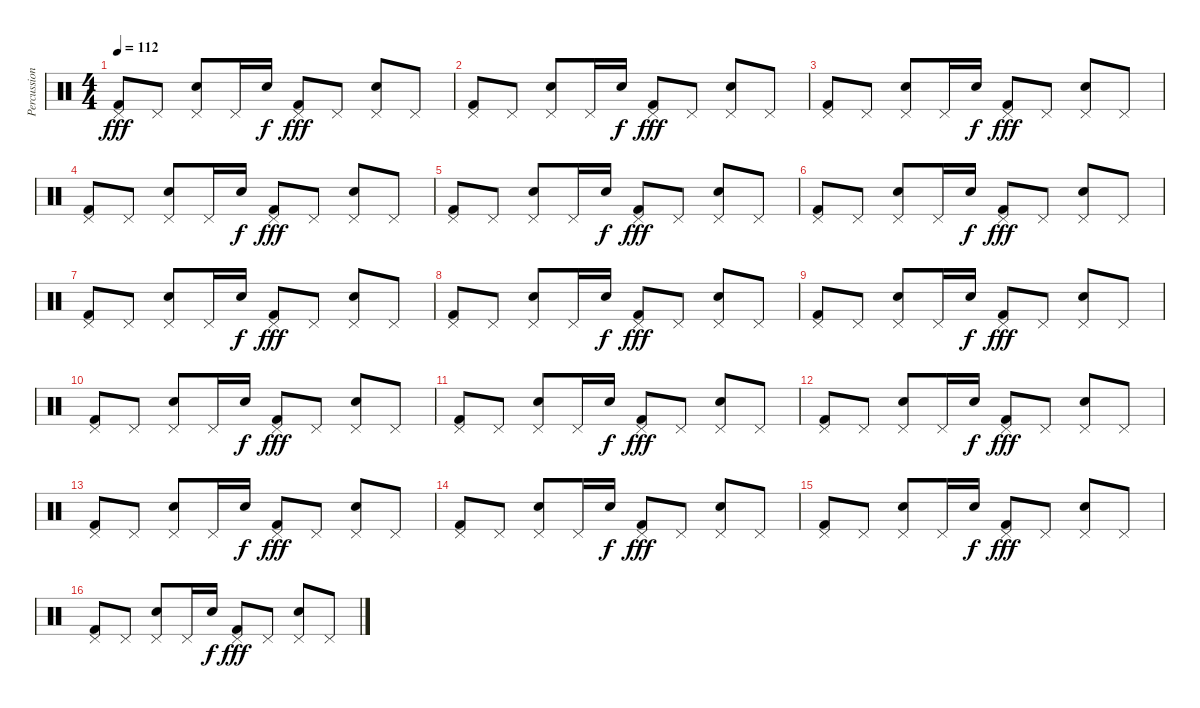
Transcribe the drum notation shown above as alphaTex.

\track ("Percussions" "Percussion") {instrument percussion}
\staff {score}
\articulation defaults
\ts (4 4)
\tempo 112
\clef neutral
\ks c
("Pedal Hi-Hat (hit)" "Kick (hit) 2").8{dy fff} "Pedal Hi-Hat (hit)".8 ("Pedal Hi-Hat (hit)" "Electric Snare (hit)").8 "Pedal Hi-Hat (hit)".16 "Electric Snare (hit)".16{dy f} ("Pedal Hi-Hat (hit)" "Kick (hit) 2").8{dy fff} "Pedal Hi-Hat (hit)".8 ("Pedal Hi-Hat (hit)" "Electric Snare (hit)").8 "Pedal Hi-Hat (hit)".8 |
("Pedal Hi-Hat (hit)" "Kick (hit) 2").8 "Pedal Hi-Hat (hit)".8 ("Pedal Hi-Hat (hit)" "Electric Snare (hit)").8 "Pedal Hi-Hat (hit)".16 "Electric Snare (hit)".16{dy f} ("Pedal Hi-Hat (hit)" "Kick (hit) 2").8{dy fff} "Pedal Hi-Hat (hit)".8 ("Pedal Hi-Hat (hit)" "Electric Snare (hit)").8 "Pedal Hi-Hat (hit)".8 |
("Pedal Hi-Hat (hit)" "Kick (hit) 2").8 "Pedal Hi-Hat (hit)".8 ("Pedal Hi-Hat (hit)" "Electric Snare (hit)").8 "Pedal Hi-Hat (hit)".16 "Electric Snare (hit)".16{dy f} ("Pedal Hi-Hat (hit)" "Kick (hit) 2").8{dy fff} "Pedal Hi-Hat (hit)".8 ("Pedal Hi-Hat (hit)" "Electric Snare (hit)").8 "Pedal Hi-Hat (hit)".8 |
("Pedal Hi-Hat (hit)" "Kick (hit) 2").8 "Pedal Hi-Hat (hit)".8 ("Pedal Hi-Hat (hit)" "Electric Snare (hit)").8 "Pedal Hi-Hat (hit)".16 "Electric Snare (hit)".16{dy f} ("Pedal Hi-Hat (hit)" "Kick (hit) 2").8{dy fff} "Pedal Hi-Hat (hit)".8 ("Pedal Hi-Hat (hit)" "Electric Snare (hit)").8 "Pedal Hi-Hat (hit)".8 |
("Pedal Hi-Hat (hit)" "Kick (hit) 2").8 "Pedal Hi-Hat (hit)".8 ("Pedal Hi-Hat (hit)" "Electric Snare (hit)").8 "Pedal Hi-Hat (hit)".16 "Electric Snare (hit)".16{dy f} ("Pedal Hi-Hat (hit)" "Kick (hit) 2").8{dy fff} "Pedal Hi-Hat (hit)".8 ("Pedal Hi-Hat (hit)" "Electric Snare (hit)").8 "Pedal Hi-Hat (hit)".8 |
("Pedal Hi-Hat (hit)" "Kick (hit) 2").8 "Pedal Hi-Hat (hit)".8 ("Pedal Hi-Hat (hit)" "Electric Snare (hit)").8 "Pedal Hi-Hat (hit)".16 "Electric Snare (hit)".16{dy f} ("Pedal Hi-Hat (hit)" "Kick (hit) 2").8{dy fff} "Pedal Hi-Hat (hit)".8 ("Pedal Hi-Hat (hit)" "Electric Snare (hit)").8 "Pedal Hi-Hat (hit)".8 |
("Pedal Hi-Hat (hit)" "Kick (hit) 2").8 "Pedal Hi-Hat (hit)".8 ("Pedal Hi-Hat (hit)" "Electric Snare (hit)").8 "Pedal Hi-Hat (hit)".16 "Electric Snare (hit)".16{dy f} ("Pedal Hi-Hat (hit)" "Kick (hit) 2").8{dy fff} "Pedal Hi-Hat (hit)".8 ("Pedal Hi-Hat (hit)" "Electric Snare (hit)").8 "Pedal Hi-Hat (hit)".8 |
("Pedal Hi-Hat (hit)" "Kick (hit) 2").8 "Pedal Hi-Hat (hit)".8 ("Pedal Hi-Hat (hit)" "Electric Snare (hit)").8 "Pedal Hi-Hat (hit)".16 "Electric Snare (hit)".16{dy f} ("Pedal Hi-Hat (hit)" "Kick (hit) 2").8{dy fff} "Pedal Hi-Hat (hit)".8 ("Pedal Hi-Hat (hit)" "Electric Snare (hit)").8 "Pedal Hi-Hat (hit)".8 |
("Pedal Hi-Hat (hit)" "Kick (hit) 2").8 "Pedal Hi-Hat (hit)".8 ("Pedal Hi-Hat (hit)" "Electric Snare (hit)").8 "Pedal Hi-Hat (hit)".16 "Electric Snare (hit)".16{dy f} ("Pedal Hi-Hat (hit)" "Kick (hit) 2").8{dy fff} "Pedal Hi-Hat (hit)".8 ("Pedal Hi-Hat (hit)" "Electric Snare (hit)").8 "Pedal Hi-Hat (hit)".8 |
("Pedal Hi-Hat (hit)" "Kick (hit) 2").8 "Pedal Hi-Hat (hit)".8 ("Pedal Hi-Hat (hit)" "Electric Snare (hit)").8 "Pedal Hi-Hat (hit)".16 "Electric Snare (hit)".16{dy f} ("Pedal Hi-Hat (hit)" "Kick (hit) 2").8{dy fff} "Pedal Hi-Hat (hit)".8 ("Pedal Hi-Hat (hit)" "Electric Snare (hit)").8 "Pedal Hi-Hat (hit)".8 |
("Pedal Hi-Hat (hit)" "Kick (hit) 2").8 "Pedal Hi-Hat (hit)".8 ("Pedal Hi-Hat (hit)" "Electric Snare (hit)").8 "Pedal Hi-Hat (hit)".16 "Electric Snare (hit)".16{dy f} ("Pedal Hi-Hat (hit)" "Kick (hit) 2").8{dy fff} "Pedal Hi-Hat (hit)".8 ("Pedal Hi-Hat (hit)" "Electric Snare (hit)").8 "Pedal Hi-Hat (hit)".8 |
("Pedal Hi-Hat (hit)" "Kick (hit) 2").8 "Pedal Hi-Hat (hit)".8 ("Pedal Hi-Hat (hit)" "Electric Snare (hit)").8 "Pedal Hi-Hat (hit)".16 "Electric Snare (hit)".16{dy f} ("Pedal Hi-Hat (hit)" "Kick (hit) 2").8{dy fff} "Pedal Hi-Hat (hit)".8 ("Pedal Hi-Hat (hit)" "Electric Snare (hit)").8 "Pedal Hi-Hat (hit)".8 |
("Pedal Hi-Hat (hit)" "Kick (hit) 2").8 "Pedal Hi-Hat (hit)".8 ("Pedal Hi-Hat (hit)" "Electric Snare (hit)").8 "Pedal Hi-Hat (hit)".16 "Electric Snare (hit)".16{dy f} ("Pedal Hi-Hat (hit)" "Kick (hit) 2").8{dy fff} "Pedal Hi-Hat (hit)".8 ("Pedal Hi-Hat (hit)" "Electric Snare (hit)").8 "Pedal Hi-Hat (hit)".8 |
("Pedal Hi-Hat (hit)" "Kick (hit) 2").8 "Pedal Hi-Hat (hit)".8 ("Pedal Hi-Hat (hit)" "Electric Snare (hit)").8 "Pedal Hi-Hat (hit)".16 "Electric Snare (hit)".16{dy f} ("Pedal Hi-Hat (hit)" "Kick (hit) 2").8{dy fff} "Pedal Hi-Hat (hit)".8 ("Pedal Hi-Hat (hit)" "Electric Snare (hit)").8 "Pedal Hi-Hat (hit)".8 |
("Pedal Hi-Hat (hit)" "Kick (hit) 2").8 "Pedal Hi-Hat (hit)".8 ("Pedal Hi-Hat (hit)" "Electric Snare (hit)").8 "Pedal Hi-Hat (hit)".16 "Electric Snare (hit)".16{dy f} ("Pedal Hi-Hat (hit)" "Kick (hit) 2").8{dy fff} "Pedal Hi-Hat (hit)".8 ("Pedal Hi-Hat (hit)" "Electric Snare (hit)").8 "Pedal Hi-Hat (hit)".8 |
("Pedal Hi-Hat (hit)" "Kick (hit) 2").8 "Pedal Hi-Hat (hit)".8 ("Pedal Hi-Hat (hit)" "Electric Snare (hit)").8 "Pedal Hi-Hat (hit)".16 "Electric Snare (hit)".16{dy f} ("Pedal Hi-Hat (hit)" "Kick (hit) 2").8{dy fff} "Pedal Hi-Hat (hit)".8 ("Pedal Hi-Hat (hit)" "Electric Snare (hit)").8 "Pedal Hi-Hat (hit)".8
